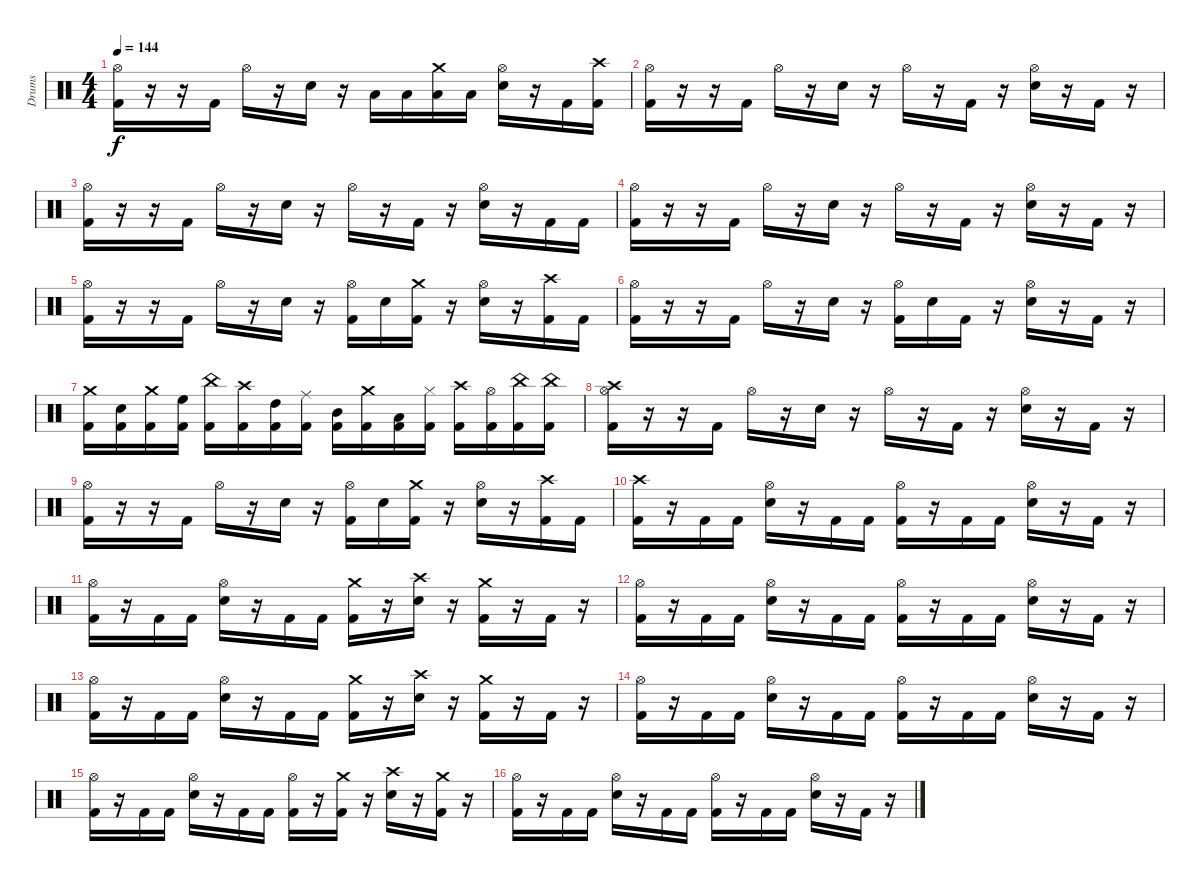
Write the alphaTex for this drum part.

\track ("Drums" "Drums") {instrument percussion}
\staff {score}
\articulation defaults
\ts (4 4)
\tempo 144
\clef neutral
\ks c
("Hi-Hat (open)" "Kick (hit) 2").16{dy f} r.16 r.16 "Kick (hit) 2".16 "Hi-Hat (open)".16 r.16 "Snare (hit) 2".16 r.16 "Low Tom (hit)".16 "Low Tom (hit)".16 ("Crash medium (hit)" "Low Floor Tom (hit)").16 "Low Floor Tom (hit)".16 ("Hi-Hat (open)" "Snare (hit) 2").16 r.16 "Kick (hit) 2".16 ("Crash high (hit)" "Kick (hit) 2").16 |
("Hi-Hat (open)" "Kick (hit) 2").16 r.16 r.16 "Kick (hit) 2".16 "Hi-Hat (open)".16 r.16 "Snare (hit) 2".16 r.16 "Hi-Hat (open)".16 r.16 "Kick (hit) 2".16 r.16 ("Hi-Hat (open)" "Snare (hit) 2").16 r.16 "Kick (hit) 2".16 r.16 |
("Hi-Hat (open)" "Kick (hit) 2").16 r.16 r.16 "Kick (hit) 2".16 "Hi-Hat (open)".16 r.16 "Snare (hit) 2".16 r.16 "Hi-Hat (open)".16 r.16 "Kick (hit) 2".16 r.16 ("Hi-Hat (open)" "Snare (hit) 2").16 r.16 "Kick (hit) 2".16 "Kick (hit) 2".16 |
("Hi-Hat (open)" "Kick (hit) 2").16 r.16 r.16 "Kick (hit) 2".16 "Hi-Hat (open)".16 r.16 "Snare (hit) 2".16 r.16 "Hi-Hat (open)".16 r.16 "Kick (hit) 2".16 r.16 ("Hi-Hat (open)" "Snare (hit) 2").16 r.16 "Kick (hit) 2".16 r.16 |
("Hi-Hat (open)" "Kick (hit) 2").16 r.16 r.16 "Kick (hit) 2".16 "Hi-Hat (open)".16 r.16 "Snare (hit) 2".16 r.16 ("Hi-Hat (open)" "Kick (hit) 2").16 "Snare (hit) 2".16 ("Crash medium (hit)" "Kick (hit) 2").16 r.16 ("Hi-Hat (open)" "Snare (hit) 2").16 r.16 ("Crash high (hit)" "Kick (hit) 2").16 "Kick (hit) 2".16 |
("Hi-Hat (open)" "Kick (hit) 2").16 r.16 r.16 "Kick (hit) 2".16 "Hi-Hat (open)".16 r.16 "Snare (hit) 2".16 r.16 ("Hi-Hat (open)" "Kick (hit) 2").16 "Snare (hit) 2".16 "Kick (hit) 2".16 r.16 ("Hi-Hat (open)" "Snare (hit) 2").16 r.16 "Kick (hit) 2".16 r.16 |
("Crash medium (hit)" "Kick (hit) 2").16 ("Snare (hit) 2" "Kick (hit) 2").16 ("Crash medium (hit)" "Kick (hit) 2").16 ("High Floor Tom (hit)" "Kick (hit) 2").16 ("China (hit)" "Kick (hit) 2").16 ("Crash high (hit)" "Kick (hit) 2").16 ("High Tom (hit)" "Kick (hit) 2").16 ("Ride (middle)" "Kick (hit) 2").16 ("Mid Tom (hit)" "Kick (hit) 2").16 ("Crash medium (hit)" "Kick (hit) 2").16 ("Low Tom (hit)" "Kick (hit) 2").16 ("Hi-Hat (closed)" "Kick (hit) 2").16 ("Crash high (hit)" "Kick (hit) 2").16 ("Hi-Hat (open)" "Kick (hit) 2").16 ("China (hit)" "Kick (hit) 2").16 ("China (hit)" "Kick (hit) 2").16 |
("Hi-Hat (open)" "Crash high (hit)" "Kick (hit) 2").16 r.16 r.16 "Kick (hit) 2".16 "Hi-Hat (open)".16 r.16 "Snare (hit) 2".16 r.16 "Hi-Hat (open)".16 r.16 "Kick (hit) 2".16 r.16 ("Hi-Hat (open)" "Snare (hit) 2").16 r.16 "Kick (hit) 2".16 r.16 |
("Hi-Hat (open)" "Kick (hit) 2").16 r.16 r.16 "Kick (hit) 2".16 "Hi-Hat (open)".16 r.16 "Snare (hit) 2".16 r.16 ("Hi-Hat (open)" "Kick (hit) 2").16 "Snare (hit) 2".16 ("Crash medium (hit)" "Kick (hit) 2").16 r.16 ("Hi-Hat (open)" "Snare (hit) 2").16 r.16 ("Crash high (hit)" "Kick (hit) 2").16 "Kick (hit) 2".16 |
("Crash high (hit)" "Kick (hit) 2").16 r.16 "Kick (hit) 2".16 "Kick (hit) 2".16 ("Hi-Hat (open)" "Snare (hit) 2").16 r.16 "Kick (hit) 2".16 "Kick (hit) 2".16 ("Hi-Hat (open)" "Kick (hit) 2").16 r.16 "Kick (hit) 2".16 "Kick (hit) 2".16 ("Hi-Hat (open)" "Snare (hit) 2").16 r.16 "Kick (hit) 2".16 r.16 |
("Hi-Hat (open)" "Kick (hit) 2").16 r.16 "Kick (hit) 2".16 "Kick (hit) 2".16 ("Hi-Hat (open)" "Snare (hit) 2").16 r.16 "Kick (hit) 2".16 "Kick (hit) 2".16 ("Crash medium (hit)" "Kick (hit) 2").16 r.16 ("Crash high (hit)" "Snare (hit) 2").16 r.16 ("Crash medium (hit)" "Kick (hit) 2").16 r.16 "Kick (hit) 2".16 r.16 |
("Hi-Hat (open)" "Kick (hit) 2").16 r.16 "Kick (hit) 2".16 "Kick (hit) 2".16 ("Hi-Hat (open)" "Snare (hit) 2").16 r.16 "Kick (hit) 2".16 "Kick (hit) 2".16 ("Hi-Hat (open)" "Kick (hit) 2").16 r.16 "Kick (hit) 2".16 "Kick (hit) 2".16 ("Hi-Hat (open)" "Snare (hit) 2").16 r.16 "Kick (hit) 2".16 r.16 |
("Hi-Hat (open)" "Kick (hit) 2").16 r.16 "Kick (hit) 2".16 "Kick (hit) 2".16 ("Hi-Hat (open)" "Snare (hit) 2").16 r.16 "Kick (hit) 2".16 "Kick (hit) 2".16 ("Crash medium (hit)" "Kick (hit) 2").16 r.16 ("Crash high (hit)" "Snare (hit) 2").16 r.16 ("Crash medium (hit)" "Kick (hit) 2").16 r.16 "Kick (hit) 2".16 r.16 |
("Hi-Hat (open)" "Kick (hit) 2").16 r.16 "Kick (hit) 2".16 "Kick (hit) 2".16 ("Hi-Hat (open)" "Snare (hit) 2").16 r.16 "Kick (hit) 2".16 "Kick (hit) 2".16 ("Hi-Hat (open)" "Kick (hit) 2").16 r.16 "Kick (hit) 2".16 "Kick (hit) 2".16 ("Hi-Hat (open)" "Snare (hit) 2").16 r.16 "Kick (hit) 2".16 r.16 |
("Hi-Hat (open)" "Kick (hit) 2").16 r.16 "Kick (hit) 2".16 "Kick (hit) 2".16 ("Hi-Hat (open)" "Snare (hit) 2").16 r.16 "Kick (hit) 2".16 "Kick (hit) 2".16 ("Hi-Hat (open)" "Kick (hit) 2").16 r.16 ("Crash medium (hit)" "Kick (hit) 2").16 r.16 ("Crash high (hit)" "Snare (hit) 2").16 r.16 ("Crash medium (hit)" "Kick (hit) 2").16 r.16 |
("Hi-Hat (open)" "Kick (hit) 2").16 r.16 "Kick (hit) 2".16 "Kick (hit) 2".16 ("Hi-Hat (open)" "Snare (hit) 2").16 r.16 "Kick (hit) 2".16 "Kick (hit) 2".16 ("Hi-Hat (open)" "Kick (hit) 2").16 r.16 "Kick (hit) 2".16 "Kick (hit) 2".16 ("Hi-Hat (open)" "Snare (hit) 2").16 r.16 "Kick (hit) 2".16 r.16
